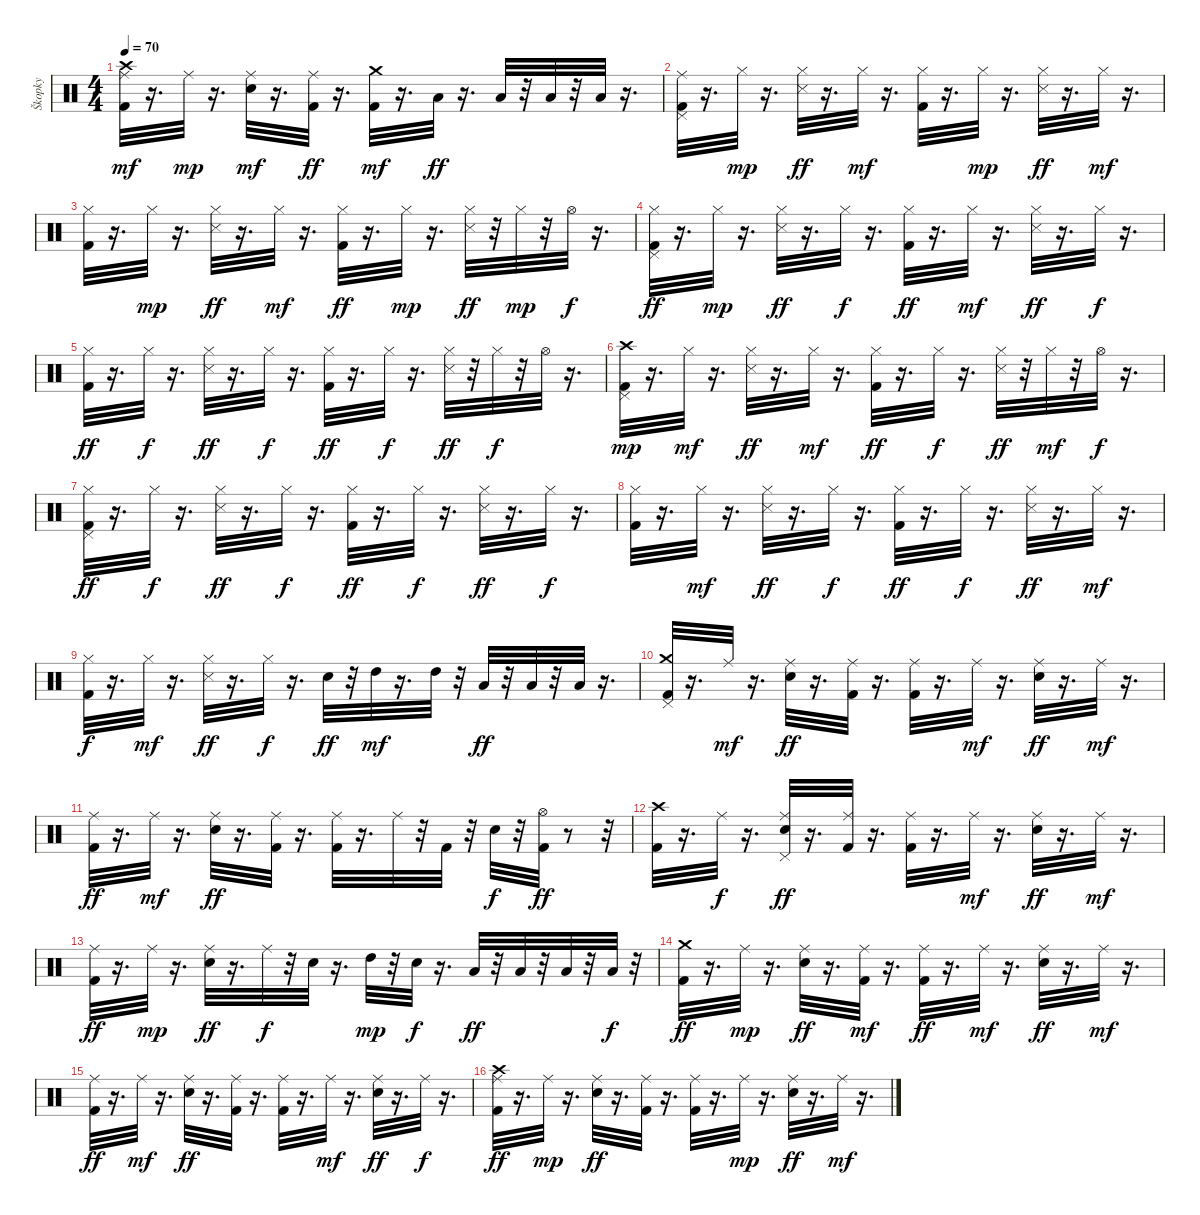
\track ("Škopky" "Škopky") {instrument percussion}
\staff {score}
\articulation defaults
\ts (4 4)
\tempo 70
\clef neutral
\ks c
("Kick (hit) 2" "Crash high (hit)" "Ride (middle)").32{dy mf} r.16{d} "Ride (middle)".32{dy mp} r.16{d} ("Snare (hit) 2" "Ride (middle)").32{dy mf} r.16{d} ("Kick (hit) 2" "Ride (middle)").32{dy ff} r.16{d} ("Kick (hit) 2" "Crash medium (hit)").32{dy mf} r.16{d} "Low Tom (hit)".32{dy ff} r.16{d} "Low Tom (hit)".32 r.32 "Low Floor Tom (hit)".32 r.32 "Low Floor Tom (hit)".32 r.16{d} |
("Pedal Hi-Hat (hit)" "Ride (middle)" "Kick (hit) 2").32 r.16{d} "Hi-Hat (closed)".32{dy mp} r.16{d} ("Hi-Hat (closed)" "Snare (side stick) 3").32{dy ff} r.16{d} "Hi-Hat (closed)".32{dy mf} r.16{d} ("Kick (hit) 2" "Hi-Hat (closed)").32 r.16{d} "Hi-Hat (closed)".32{dy mp} r.16{d} ("Hi-Hat (closed)" "Snare (side stick) 3").32{dy ff} r.16{d} "Hi-Hat (closed)".32{dy mf} r.16{d} |
("Kick (hit) 2" "Hi-Hat (closed)").32 r.16{d} "Hi-Hat (closed)".32{dy mp} r.16{d} ("Hi-Hat (closed)" "Snare (side stick) 3").32{dy ff} r.16{d} "Hi-Hat (closed)".32{dy mf} r.16{d} ("Kick (hit) 2" "Hi-Hat (closed)").32{dy ff} r.16{d} "Hi-Hat (closed)".32{dy mp} r.16{d} ("Hi-Hat (closed)" "Snare (side stick) 3").32{dy ff} r.32 "Hi-Hat (closed)".32{dy mp} r.32 "Hi-Hat (open)".32{dy f} r.16{d} |
("Pedal Hi-Hat (hit)" "Kick (hit) 2" "Hi-Hat (closed)").32{dy ff} r.16{d} "Hi-Hat (closed)".32{dy mp} r.16{d} ("Hi-Hat (closed)" "Snare (side stick) 3").32{dy ff} r.16{d} "Hi-Hat (closed)".32{dy f} r.16{d} ("Kick (hit) 2" "Hi-Hat (closed)").32{dy ff} r.16{d} "Hi-Hat (closed)".32{dy mf} r.16{d} ("Hi-Hat (closed)" "Snare (side stick) 3").32{dy ff} r.16{d} "Hi-Hat (closed)".32{dy f} r.16{d} |
("Kick (hit) 2" "Hi-Hat (closed)").32{dy ff} r.16{d} "Hi-Hat (closed)".32{dy f} r.16{d} ("Hi-Hat (closed)" "Snare (side stick) 3").32{dy ff} r.16{d} "Hi-Hat (closed)".32{dy f} r.16{d} ("Kick (hit) 2" "Hi-Hat (closed)").32{dy ff} r.16{d} "Hi-Hat (closed)".32{dy f} r.16{d} ("Hi-Hat (closed)" "Snare (side stick) 3").32{dy ff} r.32 "Hi-Hat (closed)".32{dy f} r.32 "Hi-Hat (open)".32 r.16{d} |
("Pedal Hi-Hat (hit)" "Kick (hit) 2" "Crash high (hit)").32{dy mp} r.16{d} "Hi-Hat (closed)".32{dy mf} r.16{d} ("Snare (side stick) 3" "Hi-Hat (closed)").32{dy ff} r.16{d} "Hi-Hat (closed)".32{dy mf} r.16{d} ("Kick (hit) 2" "Hi-Hat (closed)").32{dy ff} r.16{d} "Hi-Hat (closed)".32{dy f} r.16{d} ("Hi-Hat (closed)" "Snare (side stick) 3").32{dy ff} r.32 "Hi-Hat (closed)".32{dy mf} r.32 "Hi-Hat (open)".32{dy f} r.16{d} |
("Pedal Hi-Hat (hit)" "Kick (hit) 2" "Hi-Hat (closed)").32{dy ff} r.16{d} "Hi-Hat (closed)".32{dy f} r.16{d} ("Hi-Hat (closed)" "Snare (side stick) 3").32{dy ff} r.16{d} "Hi-Hat (closed)".32{dy f} r.16{d} ("Kick (hit) 2" "Hi-Hat (closed)").32{dy ff} r.16{d} "Hi-Hat (closed)".32{dy f} r.16{d} ("Hi-Hat (closed)" "Snare (side stick) 3").32{dy ff} r.16{d} "Hi-Hat (closed)".32{dy f} r.16{d} |
("Kick (hit) 2" "Hi-Hat (closed)").32 r.16{d} "Hi-Hat (closed)".32{dy mf} r.16{d} ("Hi-Hat (closed)" "Snare (side stick) 3").32{dy ff} r.16{d} "Hi-Hat (closed)".32{dy f} r.16{d} ("Kick (hit) 2" "Hi-Hat (closed)").32{dy ff} r.16{d} "Hi-Hat (closed)".32{dy f} r.16{d} ("Hi-Hat (closed)" "Snare (side stick) 3").32{dy ff} r.16{d} "Hi-Hat (closed)".32{dy mf} r.16{d} |
("Kick (hit) 2" "Hi-Hat (closed)").32{dy f} r.16{d} "Hi-Hat (closed)".32{dy mf} r.16{d} ("Hi-Hat (closed)" "Snare (side stick) 3").32{dy ff} r.16{d} "Hi-Hat (closed)".32{dy f} r.16{d} "Snare (hit) 2".32{dy ff} r.32 "High Tom (hit)".32{dy mf} r.16{d} "High Tom (hit)".32 r.32 "Low Tom (hit)".32{dy ff} r.32 "Low Tom (hit)".32 r.32 "Low Floor Tom (hit)".32 r.16{d} |
("Pedal Hi-Hat (hit)" "Kick (hit) 2" "Crash medium (hit)").32 r.16{d} "Ride (middle)".32{dy mf} r.16{d} ("Ride (middle)" "Snare (hit) 2").32{dy ff} r.16{d} ("Kick (hit) 2" "Ride (middle)").32 r.16{d} ("Kick (hit) 2" "Ride (middle)").32 r.16{d} "Ride (middle)".32{dy mf} r.16{d} ("Snare (hit) 2" "Ride (middle)").32{dy ff} r.16{d} "Ride (middle)".32{dy mf} r.16{d} |
("Kick (hit) 2" "Ride (middle)").32{dy ff} r.16{d} "Ride (middle)".32{dy mf} r.16{d} ("Snare (hit) 2" "Ride (middle)").32{dy ff} r.16{d} ("Kick (hit) 2" "Ride (middle)").32 r.16{d} ("Kick (hit) 2" "Ride (middle)").32 r.16{d} "Ride (middle)".32 r.32 "Kick (hit) 2".32 r.32 "Snare (hit) 2".32{dy f} r.32 ("Hi-Hat (open)" "Kick (hit) 2").32{dy ff} r.8 r.32 |
("Kick (hit) 2" "Crash high (hit)").32 r.16{d} "Ride (middle)".32{dy f} r.16{d} ("Pedal Hi-Hat (hit)" "Ride (middle)" "Snare (hit) 2").32{dy ff} r.16{d} ("Kick (hit) 2" "Ride (middle)").32 r.16{d} ("Kick (hit) 2" "Ride (middle)").32 r.16{d} "Ride (middle)".32{dy mf} r.16{d} ("Snare (hit) 2" "Ride (middle)").32{dy ff} r.16{d} "Ride (middle)".32{dy mf} r.16{d} |
("Kick (hit) 2" "Ride (middle)").32{dy ff} r.16{d} "Ride (middle)".32{dy mp} r.16{d} ("Snare (hit) 2" "Ride (middle)").32{dy ff} r.16{d} "Ride (middle)".32{dy f} r.32 "Snare (hit) 2".32 r.16{d} "High Tom (hit)".32{dy mp} r.32 "Snare (hit) 2".32{dy f} r.16{d} "Low Tom (hit)".32{dy ff} r.32 "Low Tom (hit)".32 r.32 "Low Floor Tom (hit)".32 r.32 "Low Floor Tom (hit)".32{dy f} r.32 |
("Kick (hit) 2" "Crash medium (hit)").32{dy ff} r.16{d} "Ride (middle)".32{dy mp} r.16{d} ("Snare (hit) 2" "Ride (middle)").32{dy ff} r.16{d} ("Kick (hit) 2" "Ride (middle)").32{dy mf} r.16{d} ("Kick (hit) 2" "Ride (middle)").32{dy ff} r.16{d} "Ride (middle)".32{dy mf} r.16{d} ("Snare (hit) 2" "Ride (middle)").32{dy ff} r.16{d} "Ride (middle)".32{dy mf} r.16{d} |
("Kick (hit) 2" "Ride (middle)").32{dy ff} r.16{d} "Ride (middle)".32{dy mf} r.16{d} ("Snare (hit) 2" "Ride (middle)").32{dy ff} r.16{d} ("Kick (hit) 2" "Ride (middle)").32 r.16{d} ("Kick (hit) 2" "Ride (middle)").32 r.16{d} "Ride (middle)".32{dy mf} r.16{d} ("Snare (hit) 2" "Ride (middle)").32{dy ff} r.16{d} "Ride (middle)".32{dy f} r.16{d} |
("Kick (hit) 2" "Crash high (hit)" "Ride (middle)").32{dy ff} r.16{d} "Ride (middle)".32{dy mp} r.16{d} ("Snare (hit) 2" "Ride (middle)").32{dy ff} r.16{d} ("Kick (hit) 2" "Ride (middle)").32 r.16{d} ("Kick (hit) 2" "Ride (middle)").32 r.16{d} "Ride (middle)".32{dy mp} r.16{d} ("Snare (hit) 2" "Ride (middle)").32{dy ff} r.16{d} "Ride (middle)".32{dy mf} r.16{d}
